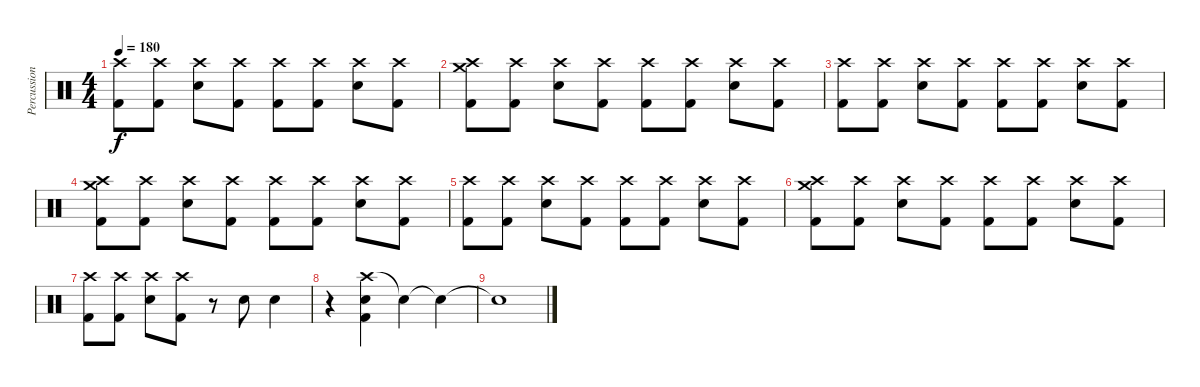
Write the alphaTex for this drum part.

\track ("Percussion" "Percussion") {instrument percussion}
\staff {score}
\articulation defaults
\ts (4 4)
\tempo 180
\clef neutral
\ks c
("Crash high (hit)" "Kick (hit) 2").8{dy f} ("Crash high (hit)" "Kick (hit) 2").8 ("Crash high (hit)" "Snare (hit) 2").8 ("Crash high (hit)" "Kick (hit) 2").8 ("Crash high (hit)" "Kick (hit) 2").8 ("Crash high (hit)" "Kick (hit) 2").8 ("Crash high (hit)" "Snare (hit) 2").8 ("Crash high (hit)" "Kick (hit) 2").8 |
("Crash high (hit)" "Kick (hit) 2" "Crash medium (hit)").8 ("Crash high (hit)" "Kick (hit) 2").8 ("Crash high (hit)" "Snare (hit) 2").8 ("Crash high (hit)" "Kick (hit) 2").8 ("Crash high (hit)" "Kick (hit) 2").8 ("Crash high (hit)" "Kick (hit) 2").8 ("Crash high (hit)" "Snare (hit) 2").8 ("Crash high (hit)" "Kick (hit) 2").8 |
("Crash high (hit)" "Kick (hit) 2").8 ("Crash high (hit)" "Kick (hit) 2").8 ("Crash high (hit)" "Snare (hit) 2").8 ("Crash high (hit)" "Kick (hit) 2").8 ("Crash high (hit)" "Kick (hit) 2").8 ("Crash high (hit)" "Kick (hit) 2").8 ("Crash high (hit)" "Snare (hit) 2").8 ("Crash high (hit)" "Kick (hit) 2").8 |
("Crash high (hit)" "Kick (hit) 2" "Crash medium (hit)").8 ("Crash high (hit)" "Kick (hit) 2").8 ("Crash high (hit)" "Snare (hit) 2").8 ("Crash high (hit)" "Kick (hit) 2").8 ("Crash high (hit)" "Kick (hit) 2").8 ("Crash high (hit)" "Kick (hit) 2").8 ("Crash high (hit)" "Snare (hit) 2").8 ("Crash high (hit)" "Kick (hit) 2").8 |
("Crash high (hit)" "Kick (hit) 2").8 ("Crash high (hit)" "Kick (hit) 2").8 ("Crash high (hit)" "Snare (hit) 2").8 ("Crash high (hit)" "Kick (hit) 2").8 ("Crash high (hit)" "Kick (hit) 2").8 ("Crash high (hit)" "Kick (hit) 2").8 ("Crash high (hit)" "Snare (hit) 2").8 ("Crash high (hit)" "Kick (hit) 2").8 |
("Crash high (hit)" "Kick (hit) 2" "Crash medium (hit)").8 ("Crash high (hit)" "Kick (hit) 2").8 ("Crash high (hit)" "Snare (hit) 2").8 ("Crash high (hit)" "Kick (hit) 2").8 ("Crash high (hit)" "Kick (hit) 2").8 ("Crash high (hit)" "Kick (hit) 2").8 ("Crash high (hit)" "Snare (hit) 2").8 ("Crash high (hit)" "Kick (hit) 2").8 |
("Crash high (hit)" "Kick (hit) 2").8 ("Crash high (hit)" "Kick (hit) 2").8 ("Crash high (hit)" "Snare (hit) 2").8 ("Crash high (hit)" "Kick (hit) 2").8 r.8 "Snare (hit) 2".8 "Snare (hit) 2".4 |
r.4 ("Crash high (hit)" "Snare (hit) 2" "Kick (hit) 2").4 "Snare (hit)"{t}.4 "Snare (hit)"{t}.4 |
"Snare (hit)"{t}.1
